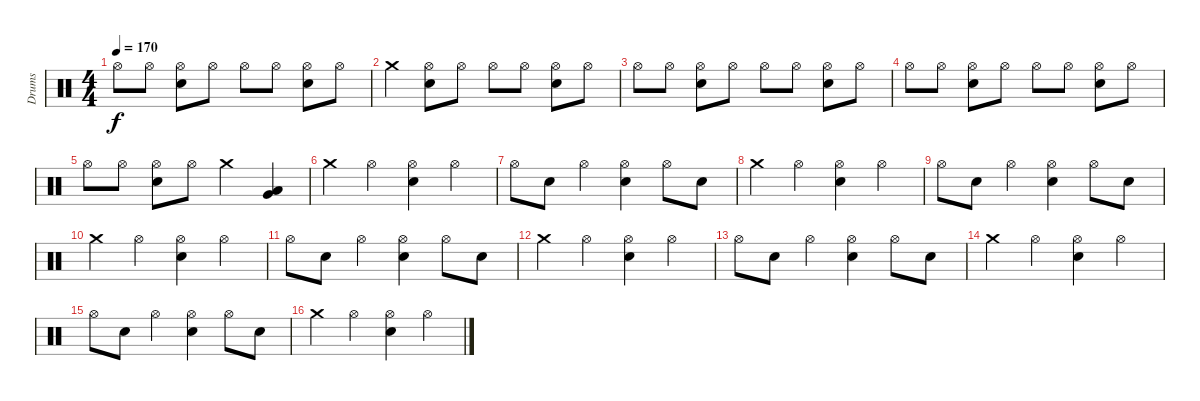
\track ("Drums" "Drums") {instrument percussion}
\staff {score}
\articulation defaults
\ts (4 4)
\tempo 170
\clef neutral
\ks c "Hi-Hat (open)".8{dy f} "Hi-Hat (open)".8
("Electric Snare (hit)" "Hi-Hat (open)").8 "Hi-Hat (open)".8 "Hi-Hat (open)".8 "Hi-Hat (open)".8 ("Electric Snare (hit)" "Hi-Hat (open)").8 "Hi-Hat (open)".8 |
"Crash medium (hit)".4 ("Electric Snare (hit)" "Hi-Hat (open)").8 "Hi-Hat (open)".8 "Hi-Hat (open)".8 "Hi-Hat (open)".8 ("Electric Snare (hit)" "Hi-Hat (open)").8 "Hi-Hat (open)".8 |
"Hi-Hat (open)".8 "Hi-Hat (open)".8 ("Electric Snare (hit)" "Hi-Hat (open)").8 "Hi-Hat (open)".8 "Hi-Hat (open)".8 "Hi-Hat (open)".8 ("Electric Snare (hit)" "Hi-Hat (open)").8 "Hi-Hat (open)".8 |
"Hi-Hat (open)".8 "Hi-Hat (open)".8 ("Electric Snare (hit)" "Hi-Hat (open)").8 "Hi-Hat (open)".8 "Hi-Hat (open)".8 "Hi-Hat (open)".8 ("Electric Snare (hit)" "Hi-Hat (open)").8 "Hi-Hat (open)".8 |
"Hi-Hat (open)".8 "Hi-Hat (open)".8 ("Electric Snare (hit)" "Hi-Hat (open)").8 "Hi-Hat (open)".8 "Crash medium (hit)".4 ("Low Floor Tom (hit)" "Very Low Tom (hit)").4 |
"Crash medium (hit)".4 "Hi-Hat (open)".4 ("Electric Snare (hit)" "Hi-Hat (open)").4 "Hi-Hat (open)".4 |
"Hi-Hat (open)".8 "Electric Snare (hit)".8 "Hi-Hat (open)".4 ("Electric Snare (hit)" "Hi-Hat (open)").4 "Hi-Hat (open)".8 "Electric Snare (hit)".8 |
"Crash medium (hit)".4 "Hi-Hat (open)".4 ("Electric Snare (hit)" "Hi-Hat (open)").4 "Hi-Hat (open)".4 |
"Hi-Hat (open)".8 "Electric Snare (hit)".8 "Hi-Hat (open)".4 ("Electric Snare (hit)" "Hi-Hat (open)").4 "Hi-Hat (open)".8 "Electric Snare (hit)".8 |
"Crash medium (hit)".4 "Hi-Hat (open)".4 ("Electric Snare (hit)" "Hi-Hat (open)").4 "Hi-Hat (open)".4 |
"Hi-Hat (open)".8 "Electric Snare (hit)".8 "Hi-Hat (open)".4 ("Electric Snare (hit)" "Hi-Hat (open)").4 "Hi-Hat (open)".8 "Electric Snare (hit)".8 |
"Crash medium (hit)".4 "Hi-Hat (open)".4 ("Electric Snare (hit)" "Hi-Hat (open)").4 "Hi-Hat (open)".4 |
"Hi-Hat (open)".8 "Electric Snare (hit)".8 "Hi-Hat (open)".4 ("Electric Snare (hit)" "Hi-Hat (open)").4 "Hi-Hat (open)".8 "Electric Snare (hit)".8 |
"Crash medium (hit)".4 "Hi-Hat (open)".4 ("Electric Snare (hit)" "Hi-Hat (open)").4 "Hi-Hat (open)".4 |
"Hi-Hat (open)".8 "Electric Snare (hit)".8 "Hi-Hat (open)".4 ("Electric Snare (hit)" "Hi-Hat (open)").4 "Hi-Hat (open)".8 "Electric Snare (hit)".8 |
"Crash medium (hit)".4 "Hi-Hat (open)".4 ("Electric Snare (hit)" "Hi-Hat (open)").4 "Hi-Hat (open)".4
